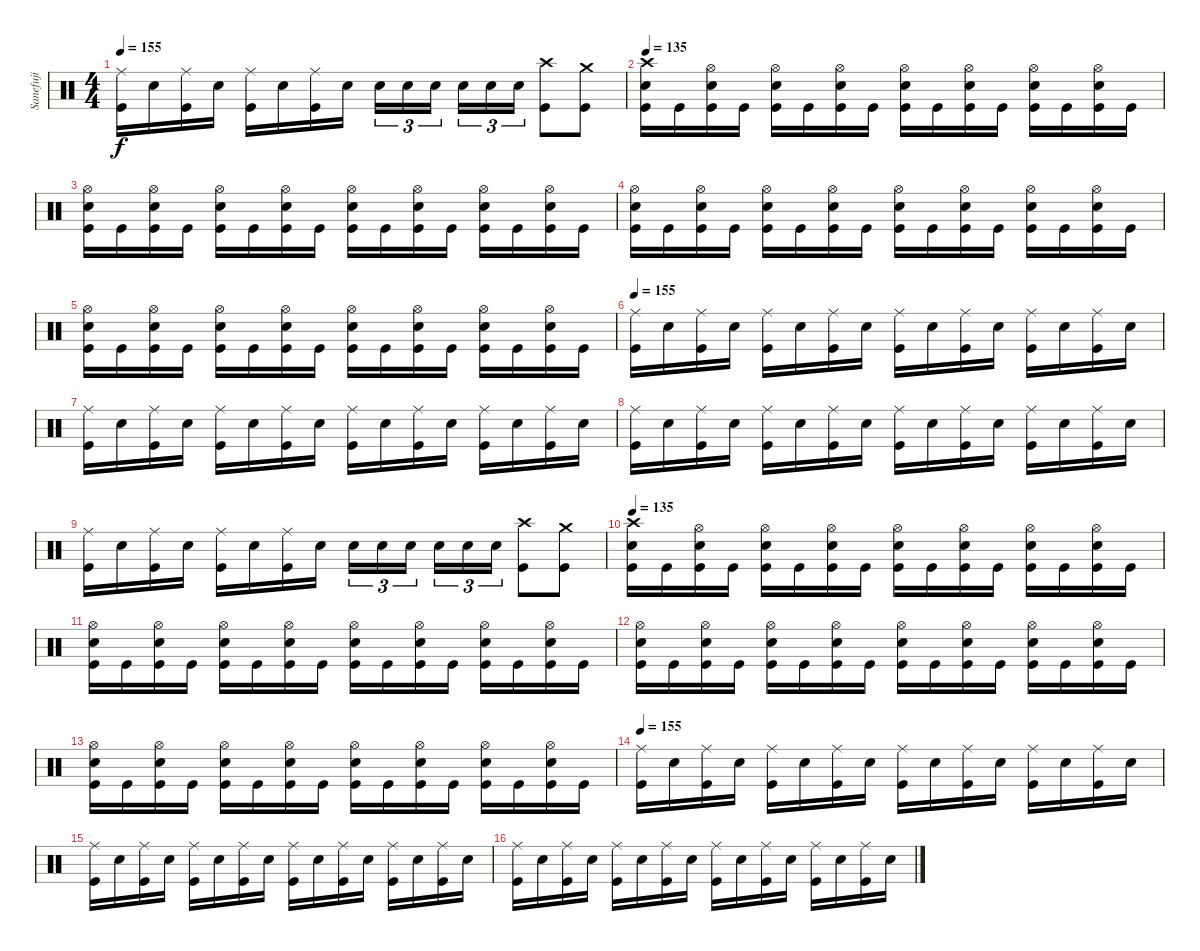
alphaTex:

\track ("Sanefuji" "Sanefuji") {instrument percussion}
\staff {score}
\articulation defaults
\ts (4 4)
\tempo 155
\clef neutral
\ks c
("Ride (middle)" "Kick (hit)").16{dy f} "Electric Snare (hit)".16 ("Ride (middle)" "Kick (hit)").16 "Electric Snare (hit)".16 ("Ride (middle)" "Kick (hit)").16 "Electric Snare (hit)".16 ("Ride (middle)" "Kick (hit)").16 "Electric Snare (hit)".16 "Electric Snare (hit)".16{tu (3 2)} "Electric Snare (hit)".16{tu (3 2)} "Electric Snare (hit)".16{tu (3 2) beam splitsecondary} "Electric Snare (hit)".16{tu (3 2)} "Electric Snare (hit)".16{tu (3 2)} "Electric Snare (hit)".16{tu (3 2)} ("Crash high (hit)" "Kick (hit)").8 ("Crash medium (hit)" "Kick (hit)").8 |
\tempo 135
("Crash high (hit)" "Electric Snare (hit)" "Kick (hit)").16 "Kick (hit)".16 ("Hi-Hat (open)" "Electric Snare (hit)" "Kick (hit)").16 "Kick (hit)".16 ("Hi-Hat (open)" "Electric Snare (hit)" "Kick (hit)").16 "Kick (hit)".16 ("Hi-Hat (open)" "Electric Snare (hit)" "Kick (hit)").16 "Kick (hit)".16 ("Hi-Hat (open)" "Electric Snare (hit)" "Kick (hit)").16 "Kick (hit)".16 ("Hi-Hat (open)" "Electric Snare (hit)" "Kick (hit)").16 "Kick (hit)".16 ("Hi-Hat (open)" "Electric Snare (hit)" "Kick (hit)").16 "Kick (hit)".16 ("Hi-Hat (open)" "Electric Snare (hit)" "Kick (hit)").16 "Kick (hit)".16 |
("Hi-Hat (open)" "Electric Snare (hit)" "Kick (hit)").16 "Kick (hit)".16 ("Hi-Hat (open)" "Electric Snare (hit)" "Kick (hit)").16 "Kick (hit)".16 ("Hi-Hat (open)" "Electric Snare (hit)" "Kick (hit)").16 "Kick (hit)".16 ("Hi-Hat (open)" "Electric Snare (hit)" "Kick (hit)").16 "Kick (hit)".16 ("Hi-Hat (open)" "Electric Snare (hit)" "Kick (hit)").16 "Kick (hit)".16 ("Hi-Hat (open)" "Electric Snare (hit)" "Kick (hit)").16 "Kick (hit)".16 ("Hi-Hat (open)" "Electric Snare (hit)" "Kick (hit)").16 "Kick (hit)".16 ("Hi-Hat (open)" "Electric Snare (hit)" "Kick (hit)").16 "Kick (hit)".16 |
("Hi-Hat (open)" "Electric Snare (hit)" "Kick (hit)").16 "Kick (hit)".16 ("Hi-Hat (open)" "Electric Snare (hit)" "Kick (hit)").16 "Kick (hit)".16 ("Hi-Hat (open)" "Electric Snare (hit)" "Kick (hit)").16 "Kick (hit)".16 ("Hi-Hat (open)" "Electric Snare (hit)" "Kick (hit)").16 "Kick (hit)".16 ("Hi-Hat (open)" "Electric Snare (hit)" "Kick (hit)").16 "Kick (hit)".16 ("Hi-Hat (open)" "Electric Snare (hit)" "Kick (hit)").16 "Kick (hit)".16 ("Hi-Hat (open)" "Electric Snare (hit)" "Kick (hit)").16 "Kick (hit)".16 ("Hi-Hat (open)" "Electric Snare (hit)" "Kick (hit)").16 "Kick (hit)".16 |
("Hi-Hat (open)" "Electric Snare (hit)" "Kick (hit)").16 "Kick (hit)".16 ("Hi-Hat (open)" "Electric Snare (hit)" "Kick (hit)").16 "Kick (hit)".16 ("Hi-Hat (open)" "Electric Snare (hit)" "Kick (hit)").16 "Kick (hit)".16 ("Hi-Hat (open)" "Electric Snare (hit)" "Kick (hit)").16 "Kick (hit)".16 ("Hi-Hat (open)" "Electric Snare (hit)" "Kick (hit)").16 "Kick (hit)".16 ("Hi-Hat (open)" "Electric Snare (hit)" "Kick (hit)").16 "Kick (hit)".16 ("Hi-Hat (open)" "Electric Snare (hit)" "Kick (hit)").16 "Kick (hit)".16 ("Hi-Hat (open)" "Electric Snare (hit)" "Kick (hit)").16 "Kick (hit)".16 |
\tempo 155
("Ride (middle)" "Kick (hit)").16 "Electric Snare (hit)".16 ("Ride (middle)" "Kick (hit)").16 "Electric Snare (hit)".16 ("Ride (middle)" "Kick (hit)").16 "Electric Snare (hit)".16 ("Ride (middle)" "Kick (hit)").16 "Electric Snare (hit)".16 ("Ride (middle)" "Kick (hit)").16 "Electric Snare (hit)".16 ("Ride (middle)" "Kick (hit)").16 "Electric Snare (hit)".16 ("Ride (middle)" "Kick (hit)").16 "Electric Snare (hit)".16 ("Ride (middle)" "Kick (hit)").16 "Electric Snare (hit)".16 |
("Ride (middle)" "Kick (hit)").16 "Electric Snare (hit)".16 ("Ride (middle)" "Kick (hit)").16 "Electric Snare (hit)".16 ("Ride (middle)" "Kick (hit)").16 "Electric Snare (hit)".16 ("Ride (middle)" "Kick (hit)").16 "Electric Snare (hit)".16 ("Ride (middle)" "Kick (hit)").16 "Electric Snare (hit)".16 ("Ride (middle)" "Kick (hit)").16 "Electric Snare (hit)".16 ("Ride (middle)" "Kick (hit)").16 "Electric Snare (hit)".16 ("Ride (middle)" "Kick (hit)").16 "Electric Snare (hit)".16 |
("Ride (middle)" "Kick (hit)").16 "Electric Snare (hit)".16 ("Ride (middle)" "Kick (hit)").16 "Electric Snare (hit)".16 ("Ride (middle)" "Kick (hit)").16 "Electric Snare (hit)".16 ("Ride (middle)" "Kick (hit)").16 "Electric Snare (hit)".16 ("Ride (middle)" "Kick (hit)").16 "Electric Snare (hit)".16 ("Ride (middle)" "Kick (hit)").16 "Electric Snare (hit)".16 ("Ride (middle)" "Kick (hit)").16 "Electric Snare (hit)".16 ("Ride (middle)" "Kick (hit)").16 "Electric Snare (hit)".16 |
("Ride (middle)" "Kick (hit)").16 "Electric Snare (hit)".16 ("Ride (middle)" "Kick (hit)").16 "Electric Snare (hit)".16 ("Ride (middle)" "Kick (hit)").16 "Electric Snare (hit)".16 ("Ride (middle)" "Kick (hit)").16 "Electric Snare (hit)".16 "Electric Snare (hit)".16{tu (3 2)} "Electric Snare (hit)".16{tu (3 2)} "Electric Snare (hit)".16{tu (3 2) beam splitsecondary} "Electric Snare (hit)".16{tu (3 2)} "Electric Snare (hit)".16{tu (3 2)} "Electric Snare (hit)".16{tu (3 2)} ("Crash high (hit)" "Kick (hit)").8 ("Crash medium (hit)" "Kick (hit)").8 |
\tempo 135
("Crash high (hit)" "Electric Snare (hit)" "Kick (hit)").16 "Kick (hit)".16 ("Hi-Hat (open)" "Electric Snare (hit)" "Kick (hit)").16 "Kick (hit)".16 ("Hi-Hat (open)" "Electric Snare (hit)" "Kick (hit)").16 "Kick (hit)".16 ("Hi-Hat (open)" "Electric Snare (hit)" "Kick (hit)").16 "Kick (hit)".16 ("Hi-Hat (open)" "Electric Snare (hit)" "Kick (hit)").16 "Kick (hit)".16 ("Hi-Hat (open)" "Electric Snare (hit)" "Kick (hit)").16 "Kick (hit)".16 ("Hi-Hat (open)" "Electric Snare (hit)" "Kick (hit)").16 "Kick (hit)".16 ("Hi-Hat (open)" "Electric Snare (hit)" "Kick (hit)").16 "Kick (hit)".16 |
("Hi-Hat (open)" "Electric Snare (hit)" "Kick (hit)").16 "Kick (hit)".16 ("Hi-Hat (open)" "Electric Snare (hit)" "Kick (hit)").16 "Kick (hit)".16 ("Hi-Hat (open)" "Electric Snare (hit)" "Kick (hit)").16 "Kick (hit)".16 ("Hi-Hat (open)" "Electric Snare (hit)" "Kick (hit)").16 "Kick (hit)".16 ("Hi-Hat (open)" "Electric Snare (hit)" "Kick (hit)").16 "Kick (hit)".16 ("Hi-Hat (open)" "Electric Snare (hit)" "Kick (hit)").16 "Kick (hit)".16 ("Hi-Hat (open)" "Electric Snare (hit)" "Kick (hit)").16 "Kick (hit)".16 ("Hi-Hat (open)" "Electric Snare (hit)" "Kick (hit)").16 "Kick (hit)".16 |
("Hi-Hat (open)" "Electric Snare (hit)" "Kick (hit)").16 "Kick (hit)".16 ("Hi-Hat (open)" "Electric Snare (hit)" "Kick (hit)").16 "Kick (hit)".16 ("Hi-Hat (open)" "Electric Snare (hit)" "Kick (hit)").16 "Kick (hit)".16 ("Hi-Hat (open)" "Electric Snare (hit)" "Kick (hit)").16 "Kick (hit)".16 ("Hi-Hat (open)" "Electric Snare (hit)" "Kick (hit)").16 "Kick (hit)".16 ("Hi-Hat (open)" "Electric Snare (hit)" "Kick (hit)").16 "Kick (hit)".16 ("Hi-Hat (open)" "Electric Snare (hit)" "Kick (hit)").16 "Kick (hit)".16 ("Hi-Hat (open)" "Electric Snare (hit)" "Kick (hit)").16 "Kick (hit)".16 |
("Hi-Hat (open)" "Electric Snare (hit)" "Kick (hit)").16 "Kick (hit)".16 ("Hi-Hat (open)" "Electric Snare (hit)" "Kick (hit)").16 "Kick (hit)".16 ("Hi-Hat (open)" "Electric Snare (hit)" "Kick (hit)").16 "Kick (hit)".16 ("Hi-Hat (open)" "Electric Snare (hit)" "Kick (hit)").16 "Kick (hit)".16 ("Hi-Hat (open)" "Electric Snare (hit)" "Kick (hit)").16 "Kick (hit)".16 ("Hi-Hat (open)" "Electric Snare (hit)" "Kick (hit)").16 "Kick (hit)".16 ("Hi-Hat (open)" "Electric Snare (hit)" "Kick (hit)").16 "Kick (hit)".16 ("Hi-Hat (open)" "Electric Snare (hit)" "Kick (hit)").16 "Kick (hit)".16 |
\tempo 155
("Ride (middle)" "Kick (hit)").16 "Electric Snare (hit)".16 ("Ride (middle)" "Kick (hit)").16 "Electric Snare (hit)".16 ("Ride (middle)" "Kick (hit)").16 "Electric Snare (hit)".16 ("Ride (middle)" "Kick (hit)").16 "Electric Snare (hit)".16 ("Ride (middle)" "Kick (hit)").16 "Electric Snare (hit)".16 ("Ride (middle)" "Kick (hit)").16 "Electric Snare (hit)".16 ("Ride (middle)" "Kick (hit)").16 "Electric Snare (hit)".16 ("Ride (middle)" "Kick (hit)").16 "Electric Snare (hit)".16 |
("Ride (middle)" "Kick (hit)").16 "Electric Snare (hit)".16 ("Ride (middle)" "Kick (hit)").16 "Electric Snare (hit)".16 ("Ride (middle)" "Kick (hit)").16 "Electric Snare (hit)".16 ("Ride (middle)" "Kick (hit)").16 "Electric Snare (hit)".16 ("Ride (middle)" "Kick (hit)").16 "Electric Snare (hit)".16 ("Ride (middle)" "Kick (hit)").16 "Electric Snare (hit)".16 ("Ride (middle)" "Kick (hit)").16 "Electric Snare (hit)".16 ("Ride (middle)" "Kick (hit)").16 "Electric Snare (hit)".16 |
("Ride (middle)" "Kick (hit)").16 "Electric Snare (hit)".16 ("Ride (middle)" "Kick (hit)").16 "Electric Snare (hit)".16 ("Ride (middle)" "Kick (hit)").16 "Electric Snare (hit)".16 ("Ride (middle)" "Kick (hit)").16 "Electric Snare (hit)".16 ("Ride (middle)" "Kick (hit)").16 "Electric Snare (hit)".16 ("Ride (middle)" "Kick (hit)").16 "Electric Snare (hit)".16 ("Ride (middle)" "Kick (hit)").16 "Electric Snare (hit)".16 ("Ride (middle)" "Kick (hit)").16 "Electric Snare (hit)".16
